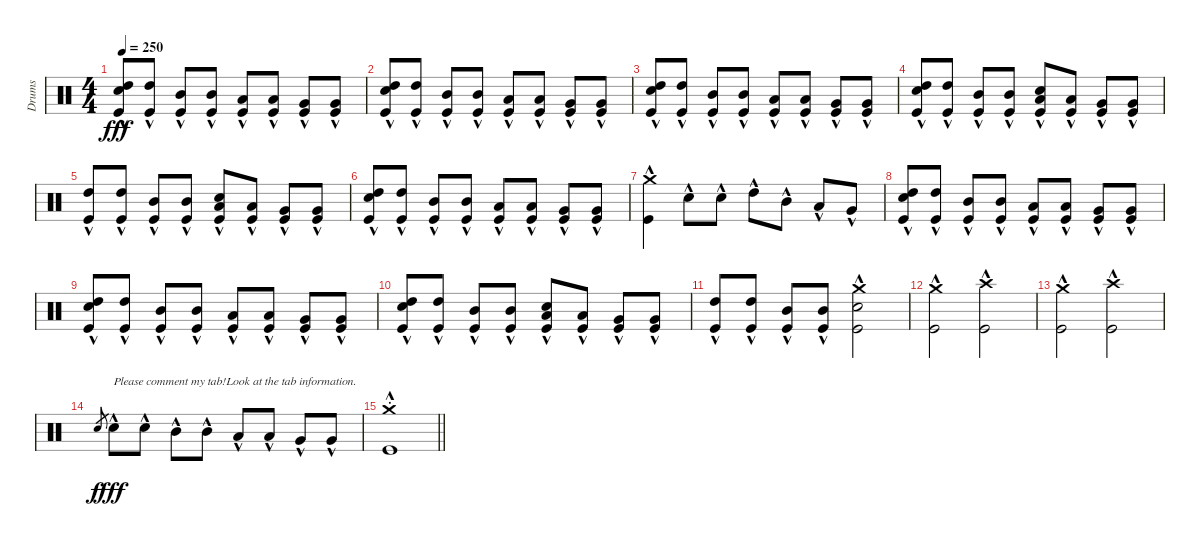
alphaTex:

\track ("Drums" "Drums") {instrument percussion}
\staff {score}
\articulation defaults
\ts (4 4)
\tempo 250
\clef neutral
\ks c
("High Tom (hit)"{hac} "Snare (hit) 2"{hac} "Kick (hit)"{hac}).8{dy fff} ("High Tom (hit)"{hac} "Kick (hit)"{hac}).8 ("Mid Tom (hit)"{hac} "Kick (hit)"{hac}).8 ("Mid Tom (hit)"{hac} "Kick (hit)"{hac}).8 ("Low Tom (hit)"{hac} "Kick (hit)"{hac}).8 ("Low Tom (hit)"{hac} "Kick (hit)"{hac}).8 ("Very Low Tom (hit)"{hac} "Kick (hit)"{hac}).8 ("Very Low Tom (hit)"{hac} "Kick (hit)"{hac}).8 |
("High Tom (hit)"{hac} "Snare (hit) 2"{hac} "Kick (hit)"{hac}).8 ("High Tom (hit)"{hac} "Kick (hit)"{hac}).8 ("Mid Tom (hit)"{hac} "Kick (hit)"{hac}).8 ("Mid Tom (hit)"{hac} "Kick (hit)"{hac}).8 ("Low Tom (hit)"{hac} "Kick (hit)"{hac}).8 ("Low Tom (hit)"{hac} "Kick (hit)"{hac}).8 ("Very Low Tom (hit)"{hac} "Kick (hit)"{hac}).8 ("Very Low Tom (hit)"{hac} "Kick (hit)"{hac}).8 |
("High Tom (hit)"{hac} "Snare (hit) 2"{hac} "Kick (hit)"{hac}).8 ("High Tom (hit)"{hac} "Kick (hit)"{hac}).8 ("Mid Tom (hit)"{hac} "Kick (hit)"{hac}).8 ("Mid Tom (hit)"{hac} "Kick (hit)"{hac}).8 ("Low Tom (hit)"{hac} "Kick (hit)"{hac}).8 ("Low Tom (hit)"{hac} "Kick (hit)"{hac}).8 ("Very Low Tom (hit)"{hac} "Kick (hit)"{hac}).8 ("Very Low Tom (hit)"{hac} "Kick (hit)"{hac}).8 |
("High Tom (hit)"{hac} "Snare (hit) 2"{hac} "Kick (hit)"{hac}).8 ("High Tom (hit)"{hac} "Kick (hit)"{hac}).8 ("Mid Tom (hit)"{hac} "Kick (hit)"{hac}).8 ("Mid Tom (hit)"{hac} "Kick (hit)"{hac}).8 ("Low Tom (hit)"{hac} "Snare (hit) 2"{hac} "Kick (hit)"{hac}).8 ("Low Tom (hit)"{hac} "Kick (hit)"{hac}).8 ("Very Low Tom (hit)"{hac} "Kick (hit)"{hac}).8 ("Very Low Tom (hit)"{hac} "Kick (hit)"{hac}).8 |
("High Tom (hit)"{hac} "Kick (hit)"{hac}).8 ("High Tom (hit)"{hac} "Kick (hit)"{hac}).8 ("Mid Tom (hit)"{hac} "Kick (hit)"{hac}).8 ("Mid Tom (hit)"{hac} "Kick (hit)"{hac}).8 ("Low Tom (hit)"{hac} "Snare (hit) 2"{hac} "Kick (hit)"{hac}).8 ("Low Tom (hit)"{hac} "Kick (hit)"{hac}).8 ("Very Low Tom (hit)"{hac} "Kick (hit)"{hac}).8 ("Very Low Tom (hit)"{hac} "Kick (hit)"{hac}).8 |
("High Tom (hit)"{hac} "Snare (hit) 2"{hac} "Kick (hit)"{hac}).8 ("High Tom (hit)"{hac} "Kick (hit)"{hac}).8 ("Mid Tom (hit)"{hac} "Kick (hit)"{hac}).8 ("Mid Tom (hit)"{hac} "Kick (hit)"{hac}).8 ("Low Tom (hit)"{hac} "Kick (hit)"{hac}).8 ("Low Tom (hit)"{hac} "Kick (hit)"{hac}).8 ("Very Low Tom (hit)"{hac} "Kick (hit)"{hac}).8 ("Very Low Tom (hit)"{hac} "Kick (hit)"{hac}).8 |
("Crash medium (hit)"{hac} "Kick (hit)"{hac}).4 "Snare (hit) 2"{hac}.8 "Snare (hit) 2"{hac}.8 "High Tom (hit)"{hac}.8 "Mid Tom (hit)"{hac}.8 "Low Tom (hit)"{hac}.8 "Very Low Tom (hit)"{hac}.8 |
("High Tom (hit)"{hac} "Snare (hit) 2"{hac} "Kick (hit)"{hac}).8 ("High Tom (hit)"{hac} "Kick (hit)"{hac}).8 ("Mid Tom (hit)"{hac} "Kick (hit)"{hac}).8 ("Mid Tom (hit)"{hac} "Kick (hit)"{hac}).8 ("Low Tom (hit)"{hac} "Kick (hit)"{hac}).8 ("Low Tom (hit)"{hac} "Kick (hit)"{hac}).8 ("Very Low Tom (hit)"{hac} "Kick (hit)"{hac}).8 ("Very Low Tom (hit)"{hac} "Kick (hit)"{hac}).8 |
("High Tom (hit)"{hac} "Snare (hit) 2"{hac} "Kick (hit)"{hac}).8 ("High Tom (hit)"{hac} "Kick (hit)"{hac}).8 ("Mid Tom (hit)"{hac} "Kick (hit)"{hac}).8 ("Mid Tom (hit)"{hac} "Kick (hit)"{hac}).8 ("Low Tom (hit)"{hac} "Kick (hit)"{hac}).8 ("Low Tom (hit)"{hac} "Kick (hit)"{hac}).8 ("Very Low Tom (hit)"{hac} "Kick (hit)"{hac}).8 ("Very Low Tom (hit)"{hac} "Kick (hit)"{hac}).8 |
("High Tom (hit)"{hac} "Snare (hit) 2"{hac} "Kick (hit)"{hac}).8 ("High Tom (hit)"{hac} "Kick (hit)"{hac}).8 ("Mid Tom (hit)"{hac} "Kick (hit)"{hac}).8 ("Mid Tom (hit)"{hac} "Kick (hit)"{hac}).8 ("Low Tom (hit)"{hac} "Snare (hit) 2"{hac} "Kick (hit)"{hac}).8 ("Low Tom (hit)"{hac} "Kick (hit)"{hac}).8 ("Very Low Tom (hit)"{hac} "Kick (hit)"{hac}).8 ("Very Low Tom (hit)"{hac} "Kick (hit)"{hac}).8 |
("High Tom (hit)"{hac} "Kick (hit)"{hac}).8 ("High Tom (hit)"{hac} "Kick (hit)"{hac}).8 ("Mid Tom (hit)"{hac} "Kick (hit)"{hac}).8 ("Mid Tom (hit)"{hac} "Kick (hit)"{hac}).8 ("Crash medium (hit)"{hac} "Snare (hit) 2"{hac} "Kick (hit)"{hac}).2 |
("Crash medium (hit)"{hac} "Kick (hit)"{hac}).2 ("Crash high (hit)"{hac} "Kick (hit)"{hac}).2 |
("Crash medium (hit)"{hac} "Kick (hit)"{hac}).2 ("Crash high (hit)"{hac} "Kick (hit)"{hac}).2 |
"Snare (hit) 2".8{gr dy f} "Snare (hit) 2"{hac}.8{txt "Please comment my tab!Look at the tab information." dy fff} "Snare (hit) 2"{hac}.8 "Mid Tom (hit)"{hac}.8 "Mid Tom (hit)"{hac}.8 "Low Tom (hit)"{hac}.8 "Low Tom (hit)"{hac}.8 "Very Low Tom (hit)"{hac}.8 "Very Low Tom (hit)"{hac}.8 |
\barLineRight lightlight
("Crash medium (hit)"{hac st} "Kick (hit)"{hac st}).1
